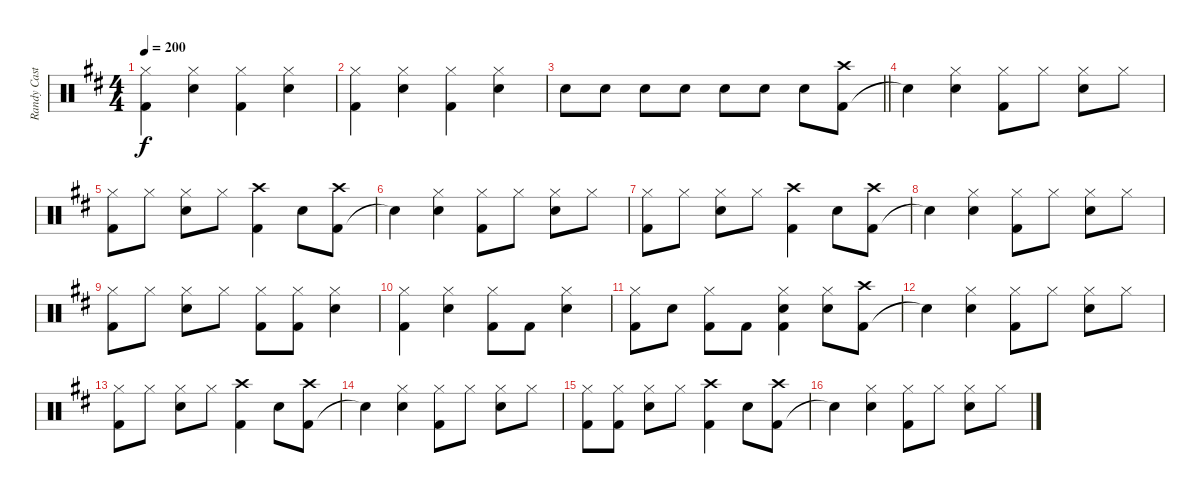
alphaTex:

\track ("Randy Castillo" "Randy Cast") {instrument percussion}
\staff {score}
\articulation defaults
\ts (4 4)
\tempo 200
\clef neutral
\ks d
("Hi-Hat (closed)" "Kick (hit) 2").4{dy f} ("Hi-Hat (closed)" "Snare (hit) 2").4 ("Hi-Hat (closed)" "Kick (hit) 2").4 ("Hi-Hat (closed)" "Snare (hit) 2").4 |
("Hi-Hat (closed)" "Kick (hit) 2").4 ("Hi-Hat (closed)" "Snare (hit) 2").4 ("Hi-Hat (closed)" "Kick (hit) 2").4 ("Hi-Hat (closed)" "Snare (hit) 2").4 |
\barLineRight lightlight "Snare (hit) 2".8 "Snare (hit) 2".8 "Snare (hit) 2".8 "Snare (hit) 2".8 "Snare (hit) 2".8 "Snare (hit) 2".8 "Snare (hit) 2".8
("Kick (hit) 2" "Crash high (hit)").8 |
"Snare (hit)"{t}.4 ("Hi-Hat (closed)" "Snare (hit) 2").4 ("Hi-Hat (closed)" "Kick (hit) 2").8 "Hi-Hat (closed)".8 ("Hi-Hat (closed)" "Snare (hit) 2").8 "Hi-Hat (closed)".8 |
("Hi-Hat (closed)" "Kick (hit) 2").8 "Hi-Hat (closed)".8 ("Hi-Hat (closed)" "Snare (hit) 2").8 "Hi-Hat (closed)".8 ("Kick (hit) 2" "Crash high (hit)").4 "Snare (hit) 2".8 ("Kick (hit) 2" "Crash high (hit)").8 |
"Snare (hit)"{t}.4 ("Hi-Hat (closed)" "Snare (hit) 2").4 ("Hi-Hat (closed)" "Kick (hit) 2").8 "Hi-Hat (closed)".8 ("Hi-Hat (closed)" "Snare (hit) 2").8 "Hi-Hat (closed)".8 |
("Hi-Hat (closed)" "Kick (hit) 2").8 "Hi-Hat (closed)".8 ("Hi-Hat (closed)" "Snare (hit) 2").8 "Hi-Hat (closed)".8 ("Kick (hit) 2" "Crash high (hit)").4 "Snare (hit) 2".8 ("Kick (hit) 2" "Crash high (hit)").8 |
"Snare (hit)"{t}.4 ("Hi-Hat (closed)" "Snare (hit) 2").4 ("Hi-Hat (closed)" "Kick (hit) 2").8 "Hi-Hat (closed)".8 ("Hi-Hat (closed)" "Snare (hit) 2").8 "Hi-Hat (closed)".8 |
("Hi-Hat (closed)" "Kick (hit) 2").8 "Hi-Hat (closed)".8 ("Hi-Hat (closed)" "Snare (hit) 2").8 "Hi-Hat (closed)".8 ("Hi-Hat (closed)" "Kick (hit) 2").8 ("Hi-Hat (closed)" "Kick (hit) 2").8 ("Hi-Hat (closed)" "Snare (hit) 2").4 |
("Hi-Hat (closed)" "Kick (hit) 2").4 ("Hi-Hat (closed)" "Snare (hit) 2").4 ("Hi-Hat (closed)" "Kick (hit) 2").8 "Kick (hit) 2".8 ("Hi-Hat (closed)" "Snare (hit) 2").4 |
("Hi-Hat (closed)" "Kick (hit) 2").8 "Snare (hit) 2".8 ("Hi-Hat (closed)" "Kick (hit) 2").8 "Kick (hit) 2".8 ("Hi-Hat (closed)" "Snare (hit) 2" "Kick (hit) 2").4 ("Hi-Hat (closed)" "Snare (hit) 2").8 ("Kick (hit) 2" "Crash high (hit)").8 |
"Snare (hit)"{t}.4 ("Hi-Hat (closed)" "Snare (hit) 2").4 ("Hi-Hat (closed)" "Kick (hit) 2").8 "Hi-Hat (closed)".8 ("Hi-Hat (closed)" "Snare (hit) 2").8 "Hi-Hat (closed)".8 |
("Hi-Hat (closed)" "Kick (hit) 2").8 "Hi-Hat (closed)".8 ("Hi-Hat (closed)" "Snare (hit) 2").8 "Hi-Hat (closed)".8 ("Kick (hit) 2" "Crash high (hit)").4 "Snare (hit) 2".8 ("Kick (hit) 2" "Crash high (hit)").8 |
"Snare (hit)"{t}.4 ("Hi-Hat (closed)" "Snare (hit) 2").4 ("Hi-Hat (closed)" "Kick (hit) 2").8 "Hi-Hat (closed)".8 ("Hi-Hat (closed)" "Snare (hit) 2").8 "Hi-Hat (closed)".8 |
("Hi-Hat (closed)" "Kick (hit) 2").8 ("Hi-Hat (closed)" "Kick (hit) 2").8 ("Hi-Hat (closed)" "Snare (hit) 2").8 "Hi-Hat (closed)".8 ("Kick (hit) 2" "Crash high (hit)").4 "Snare (hit) 2".8 ("Kick (hit) 2" "Crash high (hit)").8 |
"Snare (hit)"{t}.4 ("Hi-Hat (closed)" "Snare (hit) 2").4 ("Hi-Hat (closed)" "Kick (hit) 2").8 "Hi-Hat (closed)".8 ("Hi-Hat (closed)" "Snare (hit) 2").8 "Hi-Hat (closed)".8
